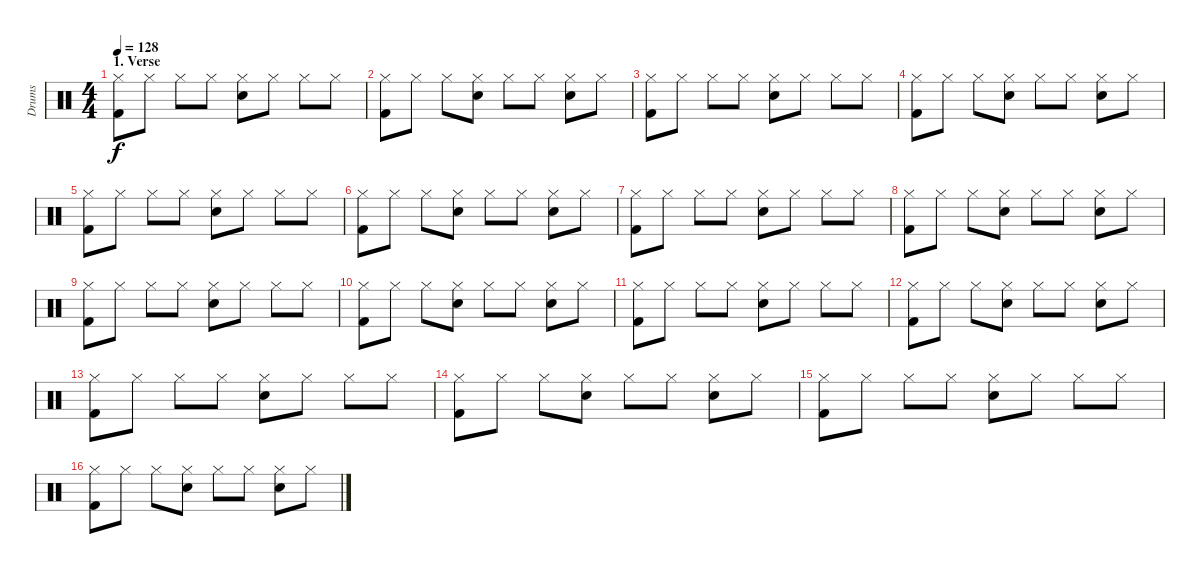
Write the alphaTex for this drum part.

\track ("Drums" "Drums") {instrument percussion}
\staff {score}
\articulation defaults
\ts (4 4)
\section ("" "1. Verse")
\tempo 128
\clef neutral
\ks c
("Hi-Hat (closed)" "Kick (hit) 2").8{dy f} "Hi-Hat (closed)".8 "Hi-Hat (closed)".8 "Hi-Hat (closed)".8 ("Hi-Hat (closed)" "Snare (hit) 2").8 "Hi-Hat (closed)".8 "Hi-Hat (closed)".8 "Hi-Hat (closed)".8 |
("Hi-Hat (closed)" "Kick (hit) 2").8 "Hi-Hat (closed)".8 "Hi-Hat (closed)".8 ("Hi-Hat (closed)" "Snare (hit) 2").8 "Hi-Hat (closed)".8 "Hi-Hat (closed)".8 ("Hi-Hat (closed)" "Snare (hit) 2").8 "Hi-Hat (closed)".8 |
("Hi-Hat (closed)" "Kick (hit) 2").8 "Hi-Hat (closed)".8 "Hi-Hat (closed)".8 "Hi-Hat (closed)".8 ("Hi-Hat (closed)" "Snare (hit) 2").8 "Hi-Hat (closed)".8 "Hi-Hat (closed)".8 "Hi-Hat (closed)".8 |
("Hi-Hat (closed)" "Kick (hit) 2").8 "Hi-Hat (closed)".8 "Hi-Hat (closed)".8 ("Hi-Hat (closed)" "Snare (hit) 2").8 "Hi-Hat (closed)".8 "Hi-Hat (closed)".8 ("Hi-Hat (closed)" "Snare (hit) 2").8 "Hi-Hat (closed)".8 |
("Hi-Hat (closed)" "Kick (hit) 2").8 "Hi-Hat (closed)".8 "Hi-Hat (closed)".8 "Hi-Hat (closed)".8 ("Hi-Hat (closed)" "Snare (hit) 2").8 "Hi-Hat (closed)".8 "Hi-Hat (closed)".8 "Hi-Hat (closed)".8 |
("Hi-Hat (closed)" "Kick (hit) 2").8 "Hi-Hat (closed)".8 "Hi-Hat (closed)".8 ("Hi-Hat (closed)" "Snare (hit) 2").8 "Hi-Hat (closed)".8 "Hi-Hat (closed)".8 ("Hi-Hat (closed)" "Snare (hit) 2").8 "Hi-Hat (closed)".8 |
("Hi-Hat (closed)" "Kick (hit) 2").8 "Hi-Hat (closed)".8 "Hi-Hat (closed)".8 "Hi-Hat (closed)".8 ("Hi-Hat (closed)" "Snare (hit) 2").8 "Hi-Hat (closed)".8 "Hi-Hat (closed)".8 "Hi-Hat (closed)".8 |
("Hi-Hat (closed)" "Kick (hit) 2").8 "Hi-Hat (closed)".8 "Hi-Hat (closed)".8 ("Hi-Hat (closed)" "Snare (hit) 2").8 "Hi-Hat (closed)".8 "Hi-Hat (closed)".8 ("Hi-Hat (closed)" "Snare (hit) 2").8 "Hi-Hat (closed)".8 |
("Hi-Hat (closed)" "Kick (hit) 2").8 "Hi-Hat (closed)".8 "Hi-Hat (closed)".8 "Hi-Hat (closed)".8 ("Hi-Hat (closed)" "Snare (hit) 2").8 "Hi-Hat (closed)".8 "Hi-Hat (closed)".8 "Hi-Hat (closed)".8 |
("Hi-Hat (closed)" "Kick (hit) 2").8 "Hi-Hat (closed)".8 "Hi-Hat (closed)".8 ("Hi-Hat (closed)" "Snare (hit) 2").8 "Hi-Hat (closed)".8 "Hi-Hat (closed)".8 ("Hi-Hat (closed)" "Snare (hit) 2").8 "Hi-Hat (closed)".8 |
("Hi-Hat (closed)" "Kick (hit) 2").8 "Hi-Hat (closed)".8 "Hi-Hat (closed)".8 "Hi-Hat (closed)".8 ("Hi-Hat (closed)" "Snare (hit) 2").8 "Hi-Hat (closed)".8 "Hi-Hat (closed)".8 "Hi-Hat (closed)".8 |
("Hi-Hat (closed)" "Kick (hit) 2").8 "Hi-Hat (closed)".8 "Hi-Hat (closed)".8 ("Hi-Hat (closed)" "Snare (hit) 2").8 "Hi-Hat (closed)".8 "Hi-Hat (closed)".8 ("Hi-Hat (closed)" "Snare (hit) 2").8 "Hi-Hat (closed)".8 |
("Hi-Hat (closed)" "Kick (hit) 2").8 "Hi-Hat (closed)".8 "Hi-Hat (closed)".8 "Hi-Hat (closed)".8 ("Hi-Hat (closed)" "Snare (hit) 2").8 "Hi-Hat (closed)".8 "Hi-Hat (closed)".8 "Hi-Hat (closed)".8 |
("Hi-Hat (closed)" "Kick (hit) 2").8 "Hi-Hat (closed)".8 "Hi-Hat (closed)".8 ("Hi-Hat (closed)" "Snare (hit) 2").8 "Hi-Hat (closed)".8 "Hi-Hat (closed)".8 ("Hi-Hat (closed)" "Snare (hit) 2").8 "Hi-Hat (closed)".8 |
("Hi-Hat (closed)" "Kick (hit) 2").8 "Hi-Hat (closed)".8 "Hi-Hat (closed)".8 "Hi-Hat (closed)".8 ("Hi-Hat (closed)" "Snare (hit) 2").8 "Hi-Hat (closed)".8 "Hi-Hat (closed)".8 "Hi-Hat (closed)".8 |
("Hi-Hat (closed)" "Kick (hit) 2").8 "Hi-Hat (closed)".8 "Hi-Hat (closed)".8 ("Hi-Hat (closed)" "Snare (hit) 2").8 "Hi-Hat (closed)".8 "Hi-Hat (closed)".8 ("Hi-Hat (closed)" "Snare (hit) 2").8 "Hi-Hat (closed)".8
